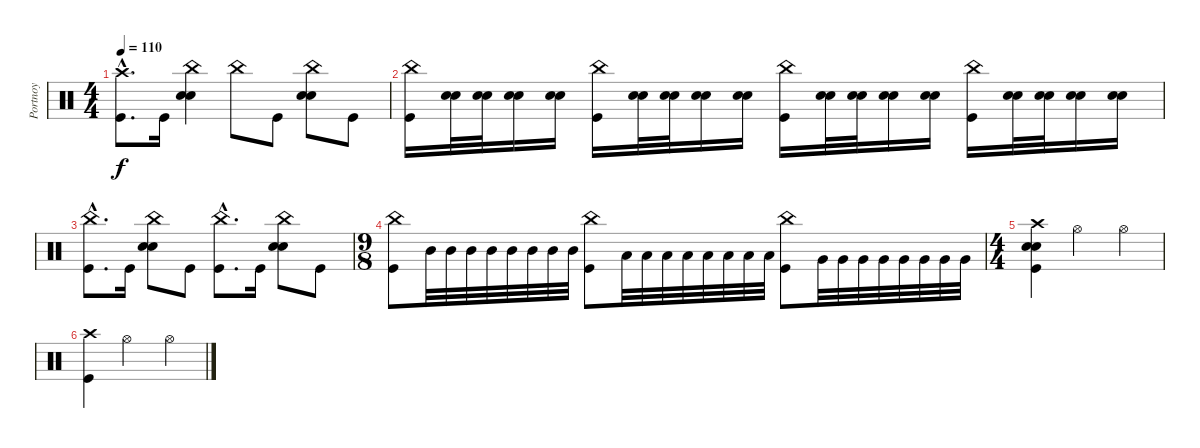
\track ("Portnoy" "Portnoy") {instrument percussion}
\staff {score}
\articulation defaults
\ts (4 4)
\tempo 110
\clef neutral
\ks c
("Crash high (hit)"{hac} "Kick (hit)"{hac}).8{d dy f} "Kick (hit)".16 ("China (hit)" "Snare (hit) 2" "Electric Snare (hit)").4 "China (hit)".8 "Kick (hit)".8 ("China (hit)" "Snare (hit) 2" "Electric Snare (hit)").8 "Kick (hit)".8 |
("China (hit)" "Kick (hit)").16 ("Snare (hit) 2" "Electric Snare (hit)").32 ("Snare (hit) 2" "Electric Snare (hit)").32 ("Snare (hit) 2" "Electric Snare (hit)").16 ("Snare (hit) 2" "Electric Snare (hit)").16 ("China (hit)" "Kick (hit)").16 ("Snare (hit) 2" "Electric Snare (hit)").32 ("Snare (hit) 2" "Electric Snare (hit)").32 ("Snare (hit) 2" "Electric Snare (hit)").16 ("Snare (hit) 2" "Electric Snare (hit)").16 ("China (hit)" "Kick (hit)").16 ("Snare (hit) 2" "Electric Snare (hit)").32 ("Snare (hit) 2" "Electric Snare (hit)").32 ("Snare (hit) 2" "Electric Snare (hit)").16 ("Snare (hit) 2" "Electric Snare (hit)").16 ("China (hit)" "Kick (hit)").16 ("Snare (hit) 2" "Electric Snare (hit)").32 ("Snare (hit) 2" "Electric Snare (hit)").32 ("Snare (hit) 2" "Electric Snare (hit)").16 ("Snare (hit) 2" "Electric Snare (hit)").16 |
("China (hit)"{hac} "Kick (hit)"{hac}).8{d} "Kick (hit)".16 ("China (hit)" "Snare (hit) 2" "Electric Snare (hit)").8 "Kick (hit)".8 ("China (hit)"{hac} "Kick (hit)"{hac}).8{d} "Kick (hit)".16 ("China (hit)" "Snare (hit) 2" "Electric Snare (hit)").8 "Kick (hit)".8 |
\ts (9 8)
("China (hit)" "Kick (hit)").8 "Mid Tom (hit)".32 "Mid Tom (hit)".32 "Mid Tom (hit)".32 "Mid Tom (hit)".32 "Mid Tom (hit)".32 "Mid Tom (hit)".32 "Mid Tom (hit)".32 "Mid Tom (hit)".32 ("China (hit)" "Kick (hit)").8 "Low Tom (hit)".32 "Low Tom (hit)".32 "Low Tom (hit)".32 "Low Tom (hit)".32 "Low Tom (hit)".32 "Low Tom (hit)".32 "Low Tom (hit)".32 "Low Tom (hit)".32 ("China (hit)" "Kick (hit)").8 "Very Low Tom (hit)".32 "Very Low Tom (hit)".32 "Very Low Tom (hit)".32 "Very Low Tom (hit)".32 "Very Low Tom (hit)".32 "Very Low Tom (hit)".32 "Very Low Tom (hit)".32 "Very Low Tom (hit)".32 |
\ts (4 4)
("Crash high (hit)" "Snare (hit) 2" "Electric Snare (hit)" "Kick (hit)").4 "Hi-Hat (open)".2 "Hi-Hat (open)".4 |
("Crash high (hit)" "Kick (hit)").4 "Hi-Hat (open)".2 "Hi-Hat (open)".4
